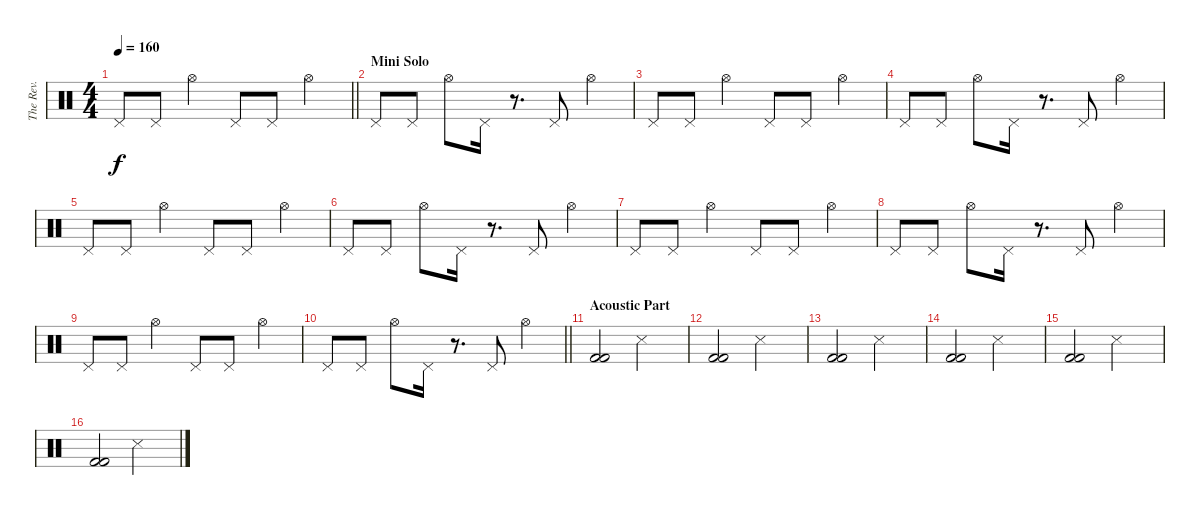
\track ("The Rev." "The Rev.") {instrument percussion}
\staff {score}
\articulation defaults
\ts (4 4)
\tempo 160
\clef neutral
\barLineRight lightlight
\ks c "Pedal Hi-Hat (hit)".8{dy f} "Pedal Hi-Hat (hit)".8 "Hi-Hat (open)".4 "Pedal Hi-Hat (hit)".8 "Pedal Hi-Hat (hit)".8 "Hi-Hat (open)".4
|
\section ("" "Mini Solo")
"Pedal Hi-Hat (hit)".8 "Pedal Hi-Hat (hit)".8 "Hi-Hat (open)".8 "Pedal Hi-Hat (hit)".16 r.8{d} "Pedal Hi-Hat (hit)".8 "Hi-Hat (open)".4 |
"Pedal Hi-Hat (hit)".8 "Pedal Hi-Hat (hit)".8 "Hi-Hat (open)".4 "Pedal Hi-Hat (hit)".8 "Pedal Hi-Hat (hit)".8 "Hi-Hat (open)".4 |
"Pedal Hi-Hat (hit)".8 "Pedal Hi-Hat (hit)".8 "Hi-Hat (open)".8 "Pedal Hi-Hat (hit)".16 r.8{d} "Pedal Hi-Hat (hit)".8 "Hi-Hat (open)".4 |
"Pedal Hi-Hat (hit)".8 "Pedal Hi-Hat (hit)".8 "Hi-Hat (open)".4 "Pedal Hi-Hat (hit)".8 "Pedal Hi-Hat (hit)".8 "Hi-Hat (open)".4 |
"Pedal Hi-Hat (hit)".8 "Pedal Hi-Hat (hit)".8 "Hi-Hat (open)".8 "Pedal Hi-Hat (hit)".16 r.8{d} "Pedal Hi-Hat (hit)".8 "Hi-Hat (open)".4 |
"Pedal Hi-Hat (hit)".8 "Pedal Hi-Hat (hit)".8 "Hi-Hat (open)".4 "Pedal Hi-Hat (hit)".8 "Pedal Hi-Hat (hit)".8 "Hi-Hat (open)".4 |
"Pedal Hi-Hat (hit)".8 "Pedal Hi-Hat (hit)".8 "Hi-Hat (open)".8 "Pedal Hi-Hat (hit)".16 r.8{d} "Pedal Hi-Hat (hit)".8 "Hi-Hat (open)".4 |
"Pedal Hi-Hat (hit)".8 "Pedal Hi-Hat (hit)".8 "Hi-Hat (open)".4 "Pedal Hi-Hat (hit)".8 "Pedal Hi-Hat (hit)".8 "Hi-Hat (open)".4 |
\barLineRight lightlight "Pedal Hi-Hat (hit)".8 "Pedal Hi-Hat (hit)".8 "Hi-Hat (open)".8 "Pedal Hi-Hat (hit)".16
r.8{d} "Pedal Hi-Hat (hit)".8 "Hi-Hat (open)".4 |
\section ("" "Acoustic Part")
("Kick (hit) 2" "Kick (hit) 2").2{volume 16} "Metronome (hit)".2 |
("Kick (hit) 2" "Kick (hit) 2").2 "Metronome (hit)".2 |
("Kick (hit) 2" "Kick (hit) 2").2 "Metronome (hit)".2 |
("Kick (hit) 2" "Kick (hit) 2").2 "Metronome (hit)".2 |
("Kick (hit) 2" "Kick (hit) 2").2 "Metronome (hit)".2 |
("Kick (hit) 2" "Kick (hit) 2").2 "Metronome (hit)".2
